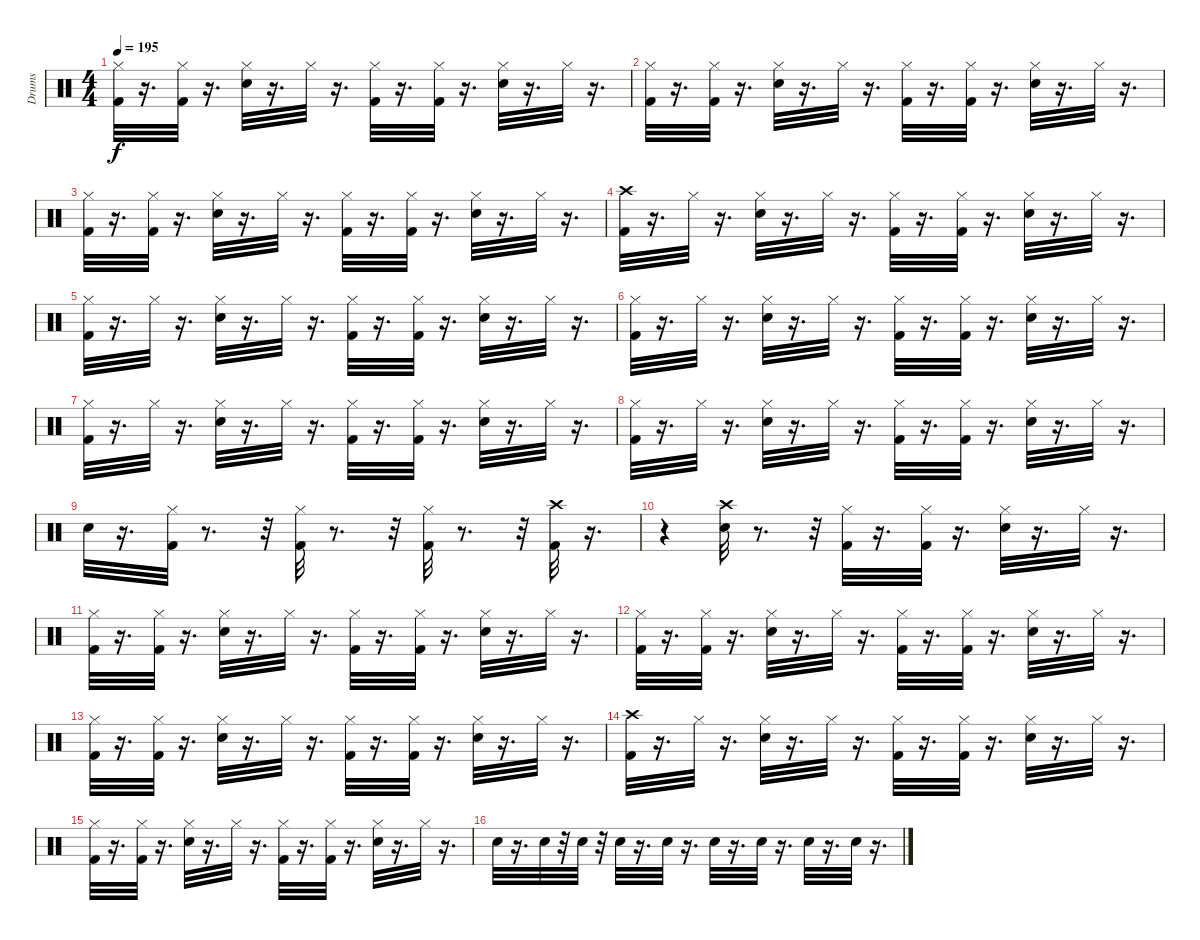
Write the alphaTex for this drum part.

\track ("Drums" "Drums") {instrument percussion}
\staff {score}
\articulation defaults
\ts (4 4)
\tempo 195
\clef neutral
\ks c
("Hi-Hat (closed)" "Kick (hit) 2").32{dy f} r.16{d} ("Hi-Hat (closed)" "Kick (hit) 2").32 r.16{d} ("Hi-Hat (closed)" "Snare (hit) 2").32 r.16{d} "Hi-Hat (closed)".32 r.16{d} ("Hi-Hat (closed)" "Kick (hit) 2").32 r.16{d} ("Hi-Hat (closed)" "Kick (hit) 2").32 r.16{d} ("Hi-Hat (closed)" "Snare (hit) 2").32 r.16{d} "Hi-Hat (closed)".32 r.16{d} |
("Hi-Hat (closed)" "Kick (hit) 2").32 r.16{d} ("Hi-Hat (closed)" "Kick (hit) 2").32 r.16{d} ("Hi-Hat (closed)" "Snare (hit) 2").32 r.16{d} "Hi-Hat (closed)".32 r.16{d} ("Hi-Hat (closed)" "Kick (hit) 2").32 r.16{d} ("Hi-Hat (closed)" "Kick (hit) 2").32 r.16{d} ("Hi-Hat (closed)" "Snare (hit) 2").32 r.16{d} "Hi-Hat (closed)".32 r.16{d} |
("Hi-Hat (closed)" "Kick (hit) 2").32 r.16{d} ("Hi-Hat (closed)" "Kick (hit) 2").32 r.16{d} ("Hi-Hat (closed)" "Snare (hit) 2").32 r.16{d} "Hi-Hat (closed)".32 r.16{d} ("Hi-Hat (closed)" "Kick (hit) 2").32 r.16{d} ("Hi-Hat (closed)" "Kick (hit) 2").32 r.16{d} ("Hi-Hat (closed)" "Snare (hit) 2").32 r.16{d} "Hi-Hat (closed)".32 r.16{d} |
("Crash high (hit)" "Kick (hit) 2").32 r.16{d} "Hi-Hat (closed)".32 r.16{d} ("Hi-Hat (closed)" "Snare (hit) 2").32 r.16{d} "Hi-Hat (closed)".32 r.16{d} ("Hi-Hat (closed)" "Kick (hit) 2").32 r.16{d} ("Hi-Hat (closed)" "Kick (hit) 2").32 r.16{d} ("Hi-Hat (closed)" "Snare (hit) 2").32 r.16{d} "Hi-Hat (closed)".32 r.16{d} |
("Hi-Hat (closed)" "Kick (hit) 2").32 r.16{d} "Hi-Hat (closed)".32 r.16{d} ("Hi-Hat (closed)" "Snare (hit) 2").32 r.16{d} "Hi-Hat (closed)".32 r.16{d} ("Hi-Hat (closed)" "Kick (hit) 2").32 r.16{d} ("Hi-Hat (closed)" "Kick (hit) 2").32 r.16{d} ("Hi-Hat (closed)" "Snare (hit) 2").32 r.16{d} "Hi-Hat (closed)".32 r.16{d} |
("Hi-Hat (closed)" "Kick (hit) 2").32 r.16{d} "Hi-Hat (closed)".32 r.16{d} ("Hi-Hat (closed)" "Snare (hit) 2").32 r.16{d} "Hi-Hat (closed)".32 r.16{d} ("Hi-Hat (closed)" "Kick (hit) 2").32 r.16{d} ("Hi-Hat (closed)" "Kick (hit) 2").32 r.16{d} ("Hi-Hat (closed)" "Snare (hit) 2").32 r.16{d} "Hi-Hat (closed)".32 r.16{d} |
("Hi-Hat (closed)" "Kick (hit) 2").32 r.16{d} "Hi-Hat (closed)".32 r.16{d} ("Hi-Hat (closed)" "Snare (hit) 2").32 r.16{d} "Hi-Hat (closed)".32 r.16{d} ("Hi-Hat (closed)" "Kick (hit) 2").32 r.16{d} ("Hi-Hat (closed)" "Kick (hit) 2").32 r.16{d} ("Hi-Hat (closed)" "Snare (hit) 2").32 r.16{d} "Hi-Hat (closed)".32 r.16{d} |
("Hi-Hat (closed)" "Kick (hit) 2").32 r.16{d} "Hi-Hat (closed)".32 r.16{d} ("Hi-Hat (closed)" "Snare (hit) 2").32 r.16{d} "Hi-Hat (closed)".32 r.16{d} ("Hi-Hat (closed)" "Kick (hit) 2").32 r.16{d} ("Hi-Hat (closed)" "Kick (hit) 2").32 r.16{d} ("Hi-Hat (closed)" "Snare (hit) 2").32 r.16{d} "Hi-Hat (closed)".32 r.16{d} |
"Snare (hit) 2".32 r.16{d} ("Hi-Hat (closed)" "Kick (hit) 2").32 r.8{d} r.32 ("Hi-Hat (closed)" "Kick (hit) 2").32 r.8{d} r.32 ("Hi-Hat (closed)" "Kick (hit) 2").32 r.8{d} r.32 ("Crash high (hit)" "Kick (hit) 2").32 r.16{d} |
r.4 ("Crash high (hit)" "Snare (hit) 2").32 r.8{d} r.32 ("Hi-Hat (closed)" "Kick (hit) 2").32 r.16{d} ("Hi-Hat (closed)" "Kick (hit) 2").32 r.16{d} ("Hi-Hat (closed)" "Snare (hit) 2").32 r.16{d} "Hi-Hat (closed)".32 r.16{d} |
("Hi-Hat (closed)" "Kick (hit) 2").32 r.16{d} ("Hi-Hat (closed)" "Kick (hit) 2").32 r.16{d} ("Hi-Hat (closed)" "Snare (hit) 2").32 r.16{d} "Hi-Hat (closed)".32 r.16{d} ("Hi-Hat (closed)" "Kick (hit) 2").32 r.16{d} ("Hi-Hat (closed)" "Kick (hit) 2").32 r.16{d} ("Hi-Hat (closed)" "Snare (hit) 2").32 r.16{d} "Hi-Hat (closed)".32 r.16{d} |
("Hi-Hat (closed)" "Kick (hit) 2").32 r.16{d} ("Hi-Hat (closed)" "Kick (hit) 2").32 r.16{d} ("Hi-Hat (closed)" "Snare (hit) 2").32 r.16{d} "Hi-Hat (closed)".32 r.16{d} ("Hi-Hat (closed)" "Kick (hit) 2").32 r.16{d} ("Hi-Hat (closed)" "Kick (hit) 2").32 r.16{d} ("Hi-Hat (closed)" "Snare (hit) 2").32 r.16{d} "Hi-Hat (closed)".32 r.16{d} |
("Hi-Hat (closed)" "Kick (hit) 2").32 r.16{d} ("Hi-Hat (closed)" "Kick (hit) 2").32 r.16{d} ("Hi-Hat (closed)" "Snare (hit) 2").32 r.16{d} "Hi-Hat (closed)".32 r.16{d} ("Hi-Hat (closed)" "Kick (hit) 2").32 r.16{d} ("Hi-Hat (closed)" "Kick (hit) 2").32 r.16{d} ("Hi-Hat (closed)" "Snare (hit) 2").32 r.16{d} "Hi-Hat (closed)".32 r.16{d} |
("Crash high (hit)" "Kick (hit) 2").32 r.16{d} "Hi-Hat (closed)".32 r.16{d} ("Hi-Hat (closed)" "Snare (hit) 2").32 r.16{d} "Hi-Hat (closed)".32 r.16{d} ("Hi-Hat (closed)" "Kick (hit) 2").32 r.16{d} ("Hi-Hat (closed)" "Kick (hit) 2").32 r.16{d} ("Hi-Hat (closed)" "Snare (hit) 2").32 r.16{d} "Hi-Hat (closed)".32 r.16{d} |
("Hi-Hat (closed)" "Kick (hit) 2").32 r.16{d} ("Kick (hit) 2" "Hi-Hat (closed)").32 r.16{d} ("Hi-Hat (closed)" "Snare (hit) 2").32 r.16{d} "Hi-Hat (closed)".32 r.16{d} ("Hi-Hat (closed)" "Kick (hit) 2").32 r.16{d} ("Hi-Hat (closed)" "Kick (hit) 2").32 r.16{d} ("Hi-Hat (closed)" "Snare (hit) 2").32 r.16{d} "Hi-Hat (closed)".32 r.16{d} |
"Snare (hit) 2".32 r.16{d} "Snare (hit) 2".32 r.32 "Snare (hit) 2".32 r.32 "Snare (hit) 2".32 r.16{d} "Snare (hit) 2".32 r.16{d} "Snare (hit) 2".32 r.16{d} "Snare (hit) 2".32 r.16{d} "Snare (hit) 2".32 r.16{d} "Snare (hit) 2".32 r.16{d}
